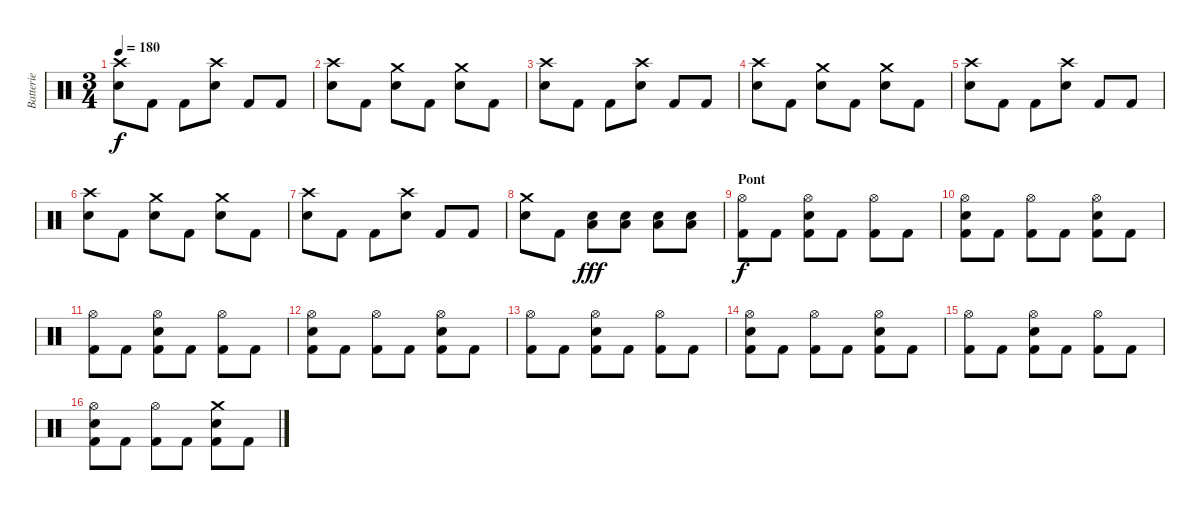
\track ("Batterie" "Batterie") {instrument percussion}
\staff {score}
\articulation defaults
\ts (3 4)
\tempo 180
\clef neutral
\ks c
("Crash high (hit)" "Electric Snare (hit)").8{dy f} "Kick (hit) 2".8 "Kick (hit) 2".8 ("Crash high (hit)" "Electric Snare (hit)").8 "Kick (hit) 2".8 "Kick (hit) 2".8 |
("Crash high (hit)" "Electric Snare (hit)").8 "Kick (hit) 2".8 ("Crash medium (hit)" "Electric Snare (hit)").8 "Kick (hit) 2".8 ("Crash medium (hit)" "Electric Snare (hit)").8 "Kick (hit) 2".8 |
("Crash high (hit)" "Electric Snare (hit)").8 "Kick (hit) 2".8 "Kick (hit) 2".8 ("Crash high (hit)" "Electric Snare (hit)").8 "Kick (hit) 2".8 "Kick (hit) 2".8 |
("Crash high (hit)" "Electric Snare (hit)").8 "Kick (hit) 2".8 ("Crash medium (hit)" "Electric Snare (hit)").8 "Kick (hit) 2".8 ("Crash medium (hit)" "Electric Snare (hit)").8 "Kick (hit) 2".8 |
("Crash high (hit)" "Electric Snare (hit)").8 "Kick (hit) 2".8 "Kick (hit) 2".8 ("Crash high (hit)" "Electric Snare (hit)").8 "Kick (hit) 2".8 "Kick (hit) 2".8 |
("Crash high (hit)" "Electric Snare (hit)").8 "Kick (hit) 2".8 ("Crash medium (hit)" "Electric Snare (hit)").8 "Kick (hit) 2".8 ("Crash medium (hit)" "Electric Snare (hit)").8 "Kick (hit) 2".8 |
("Crash high (hit)" "Electric Snare (hit)").8 "Kick (hit) 2".8 "Kick (hit) 2".8 ("Crash high (hit)" "Electric Snare (hit)").8 "Kick (hit) 2".8 "Kick (hit) 2".8 |
("Crash medium (hit)" "Electric Snare (hit)").8 "Kick (hit) 2".8 ("Electric Snare (hit)" "Low Floor Tom (hit)").8{dy fff} ("Electric Snare (hit)" "Low Floor Tom (hit)").8 ("Electric Snare (hit)" "Low Floor Tom (hit)").8 ("Electric Snare (hit)" "Low Floor Tom (hit)").8 |
\section ("" "Pont")
("Hi-Hat (open)" "Kick (hit) 2").8{dy f} "Kick (hit) 2".8 ("Hi-Hat (open)" "Electric Snare (hit)" "Kick (hit) 2").8 "Kick (hit) 2".8 ("Hi-Hat (open)" "Kick (hit) 2").8 "Kick (hit) 2".8 |
("Hi-Hat (open)" "Electric Snare (hit)" "Kick (hit) 2").8 "Kick (hit) 2".8 ("Hi-Hat (open)" "Kick (hit) 2").8 "Kick (hit) 2".8 ("Hi-Hat (open)" "Electric Snare (hit)" "Kick (hit) 2").8 "Kick (hit) 2".8 |
("Hi-Hat (open)" "Kick (hit) 2").8 "Kick (hit) 2".8 ("Hi-Hat (open)" "Electric Snare (hit)" "Kick (hit) 2").8 "Kick (hit) 2".8 ("Hi-Hat (open)" "Kick (hit) 2").8 "Kick (hit) 2".8 |
("Hi-Hat (open)" "Electric Snare (hit)" "Kick (hit) 2").8 "Kick (hit) 2".8 ("Hi-Hat (open)" "Kick (hit) 2").8 "Kick (hit) 2".8 ("Hi-Hat (open)" "Electric Snare (hit)" "Kick (hit) 2").8 "Kick (hit) 2".8 |
("Hi-Hat (open)" "Kick (hit) 2").8 "Kick (hit) 2".8 ("Hi-Hat (open)" "Electric Snare (hit)" "Kick (hit) 2").8 "Kick (hit) 2".8 ("Hi-Hat (open)" "Kick (hit) 2").8 "Kick (hit) 2".8 |
("Hi-Hat (open)" "Electric Snare (hit)" "Kick (hit) 2").8 "Kick (hit) 2".8 ("Hi-Hat (open)" "Kick (hit) 2").8 "Kick (hit) 2".8 ("Hi-Hat (open)" "Electric Snare (hit)" "Kick (hit) 2").8 "Kick (hit) 2".8 |
("Hi-Hat (open)" "Kick (hit) 2").8 "Kick (hit) 2".8 ("Hi-Hat (open)" "Electric Snare (hit)" "Kick (hit) 2").8 "Kick (hit) 2".8 ("Hi-Hat (open)" "Kick (hit) 2").8 "Kick (hit) 2".8 |
("Hi-Hat (open)" "Electric Snare (hit)" "Kick (hit) 2").8 "Kick (hit) 2".8 ("Hi-Hat (open)" "Kick (hit) 2").8 "Kick (hit) 2".8 ("Crash medium (hit)" "Electric Snare (hit)" "Kick (hit) 2").8 "Kick (hit) 2".8
